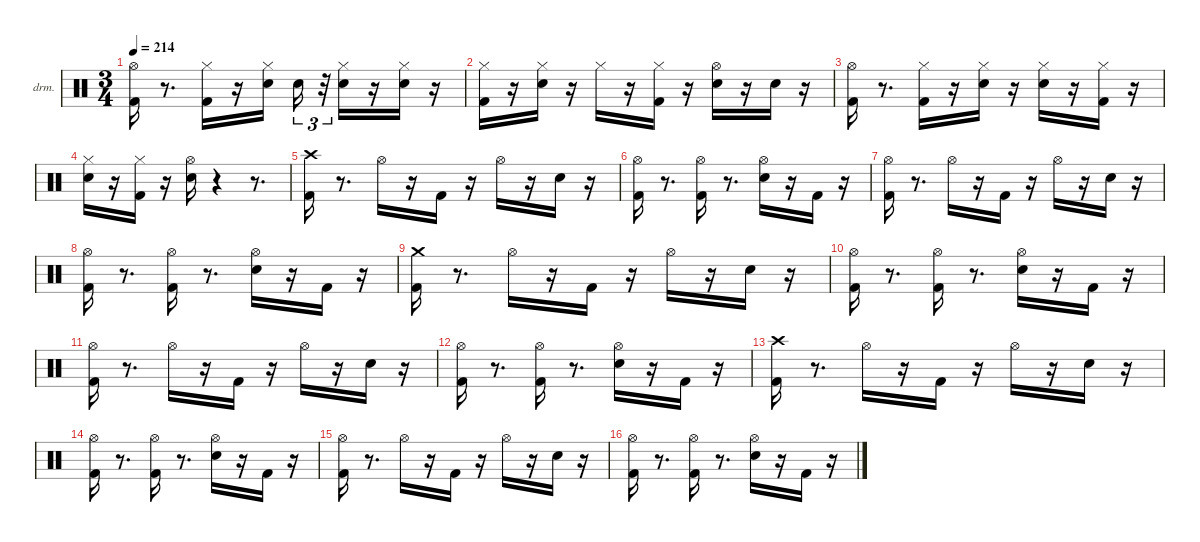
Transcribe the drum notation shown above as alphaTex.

\hideDynamics
\bracketExtendMode nobrackets
\firstSystemTrackNameOrientation horizontal
\otherSystemsTrackNameOrientation horizontal
\track ("EZdrummer 3" "drm.") {instrument percussion}
\staff {score}
\articulation defaults
\ts (3 4)
\tempo 214
\clef neutral
\ks aminor
("Kick (hit) 2" "Hi-Hat (open)"{acc #}).16{dy ff beam Down} r.8{d beam Down} ("Kick (hit) 2" "Hi-Hat (closed)"{acc #}).16{dy mf beam Down} r.16{beam Down} ("Snare (hit) 2" "Hi-Hat (closed)"{acc #}).16{dy f beam Down} "Snare (hit) 2".16{tu (3 2) dy p beam Down} r.32{tu (3 2) beam Down} ("Snare (hit) 2" "Hi-Hat (closed)"{acc #}).16{dy ppp beam Down} r.16{beam Down} ("Snare (hit) 2" "Hi-Hat (closed)"{acc #}).16{dy pp beam Down} r.16{beam Down} |
("Kick (hit) 2" "Hi-Hat (closed)"{acc #}).16{dy mf beam Down} r.16{beam Down} ("Snare (hit) 2" "Hi-Hat (closed)"{acc #}).16{dy f beam Down} r.16{beam Down} "Hi-Hat (closed)"{acc #}.16{beam Down} r.16{beam Down} ("Kick (hit) 2" "Hi-Hat (closed)"{acc #}).16{beam Down} r.16{beam Down} ("Snare (hit) 2" "Hi-Hat (open)"{acc #}).16{beam Down} r.16{beam Down} "Snare (hit) 2".16{dy pp beam Down} r.16{beam Down} |
("Kick (hit) 2" "Hi-Hat (open)"{acc #}).16{dy ff beam Down} r.8{d beam Down} ("Kick (hit) 2" "Hi-Hat (closed)"{acc #}).16{dy f beam Down} r.16{beam Down} ("Snare (hit) 2" "Hi-Hat (closed)"{acc #}).16{beam Down} r.16{beam Down} ("Snare (hit) 2" "Hi-Hat (closed)"{acc #}).16{dy ppp beam Down} r.16{beam Down} ("Kick (hit) 2" "Hi-Hat (closed)"{acc #}).16{dy mf beam Down} r.16{beam Down} |
("Snare (hit) 2" "Hi-Hat (closed)"{acc #}).16{beam Down} r.16{beam Down} ("Kick (hit) 2" "Hi-Hat (closed)"{acc #}).16{beam Down} r.16{beam Down} ("Snare (hit) 2" "Hi-Hat (open)"{acc #}).16{dy ff beam Down} r.4{beam Down} r.8{d beam Down} |
("Kick (hit) 2" "Crash high (hit)"{acc #}).16{dy fff beam Down} r.8{d beam Down} "Hi-Hat (open)"{acc #}.16{dy mf beam Down} r.16{beam Down} "Kick (hit) 2".16{dy ff beam Up} r.16{beam Up} "Hi-Hat (open)"{acc #}.16{dy f beam Down} r.16{beam Down} "Snare (hit) 2".16{dy ff beam Down} r.16{beam Down} |
("Kick (hit) 2" "Hi-Hat (open)"{acc #}).16{beam Down} r.8{d beam Down} ("Kick (hit) 2" "Hi-Hat (open)"{acc #}).16{dy f beam Down} r.8{d beam Down} ("Snare (hit) 2" "Hi-Hat (open)"{acc #}).16{beam Down} r.16{beam Down} "Kick (hit) 2".16{dy mp beam Up} r.16{beam Up} |
("Kick (hit) 2" "Hi-Hat (open)"{acc #}).16{dy fff beam Down} r.8{d beam Down} "Hi-Hat (open)"{acc #}.16{dy mf beam Down} r.16{beam Down} "Kick (hit) 2".16{dy ff beam Up} r.16{beam Up} "Hi-Hat (open)"{acc #}.16{dy f beam Down} r.16{beam Down} "Snare (hit) 2".16{dy ff beam Down} r.16{beam Down} |
("Kick (hit) 2" "Hi-Hat (open)"{acc #}).16{dy fff beam Down} r.8{d beam Down} ("Kick (hit) 2" "Hi-Hat (open)"{acc #}).16{dy ff beam Down} r.8{d beam Down} ("Snare (hit) 2" "Hi-Hat (open)"{acc #}).16{dy f beam Down} r.16{beam Down} "Kick (hit) 2".16{dy mp beam Up} r.16{beam Up} |
("Kick (hit) 2" "Crash medium (hit)").16{dy fff beam Down} r.8{d beam Down} "Hi-Hat (open)"{acc #}.16{dy mf beam Down} r.16{beam Down} "Kick (hit) 2".16{dy ff beam Up} r.16{beam Up} "Hi-Hat (open)"{acc #}.16{dy f beam Down} r.16{beam Down} "Snare (hit) 2".16{dy ff beam Down} r.16{beam Down} |
("Kick (hit) 2" "Hi-Hat (open)"{acc #}).16{dy fff beam Down} r.8{d beam Down} ("Kick (hit) 2" "Hi-Hat (open)"{acc #}).16{dy f beam Down} r.8{d beam Down} ("Snare (hit) 2" "Hi-Hat (open)"{acc #}).16{beam Down} r.16{beam Down} "Kick (hit) 2".16{dy mp beam Up} r.16{beam Up} |
("Kick (hit) 2" "Hi-Hat (open)"{acc #}).16{dy fff beam Down} r.8{d beam Down} "Hi-Hat (open)"{acc #}.16{dy mf beam Down} r.16{beam Down} "Kick (hit) 2".16{dy ff beam Up} r.16{beam Up} "Hi-Hat (open)"{acc #}.16{dy f beam Down} r.16{beam Down} "Snare (hit) 2".16{dy ff beam Down} r.16{beam Down} |
("Kick (hit) 2" "Hi-Hat (open)"{acc #}).16{dy fff beam Down} r.8{d beam Down} ("Kick (hit) 2" "Hi-Hat (open)"{acc #}).16{dy ff beam Down} r.8{d beam Down} ("Snare (hit) 2" "Hi-Hat (open)"{acc #}).16{dy f beam Down} r.16{beam Down} "Kick (hit) 2".16{dy mp beam Up} r.16{beam Up} |
("Kick (hit) 2" "Crash high (hit)"{acc #}).16{dy fff beam Down} r.8{d beam Down} "Hi-Hat (open)"{acc #}.16{dy mf beam Down} r.16{beam Down} "Kick (hit) 2".16{dy ff beam Up} r.16{beam Up} "Hi-Hat (open)"{acc #}.16{dy f beam Down} r.16{beam Down} "Snare (hit) 2".16{dy ff beam Down} r.16{beam Down} |
("Kick (hit) 2" "Hi-Hat (open)"{acc #}).16{beam Down} r.8{d beam Down} ("Kick (hit) 2" "Hi-Hat (open)"{acc #}).16{dy f beam Down} r.8{d beam Down} ("Snare (hit) 2" "Hi-Hat (open)"{acc #}).16{beam Down} r.16{beam Down} "Kick (hit) 2".16{dy mp beam Up} r.16{beam Up} |
("Kick (hit) 2" "Hi-Hat (open)"{acc #}).16{dy fff beam Down} r.8{d beam Down} "Hi-Hat (open)"{acc #}.16{dy mf beam Down} r.16{beam Down} "Kick (hit) 2".16{dy ff beam Up} r.16{beam Up} "Hi-Hat (open)"{acc #}.16{dy f beam Down} r.16{beam Down} "Snare (hit) 2".16{dy ff beam Down} r.16{beam Down} |
("Kick (hit) 2" "Hi-Hat (open)"{acc #}).16{dy fff beam Down} r.8{d beam Down} ("Kick (hit) 2" "Hi-Hat (open)"{acc #}).16{dy ff beam Down} r.8{d beam Down} ("Snare (hit) 2" "Hi-Hat (open)"{acc #}).16{dy f beam Down} r.16{beam Down} "Kick (hit) 2".16{dy mp beam Up} r.16{beam Up}
